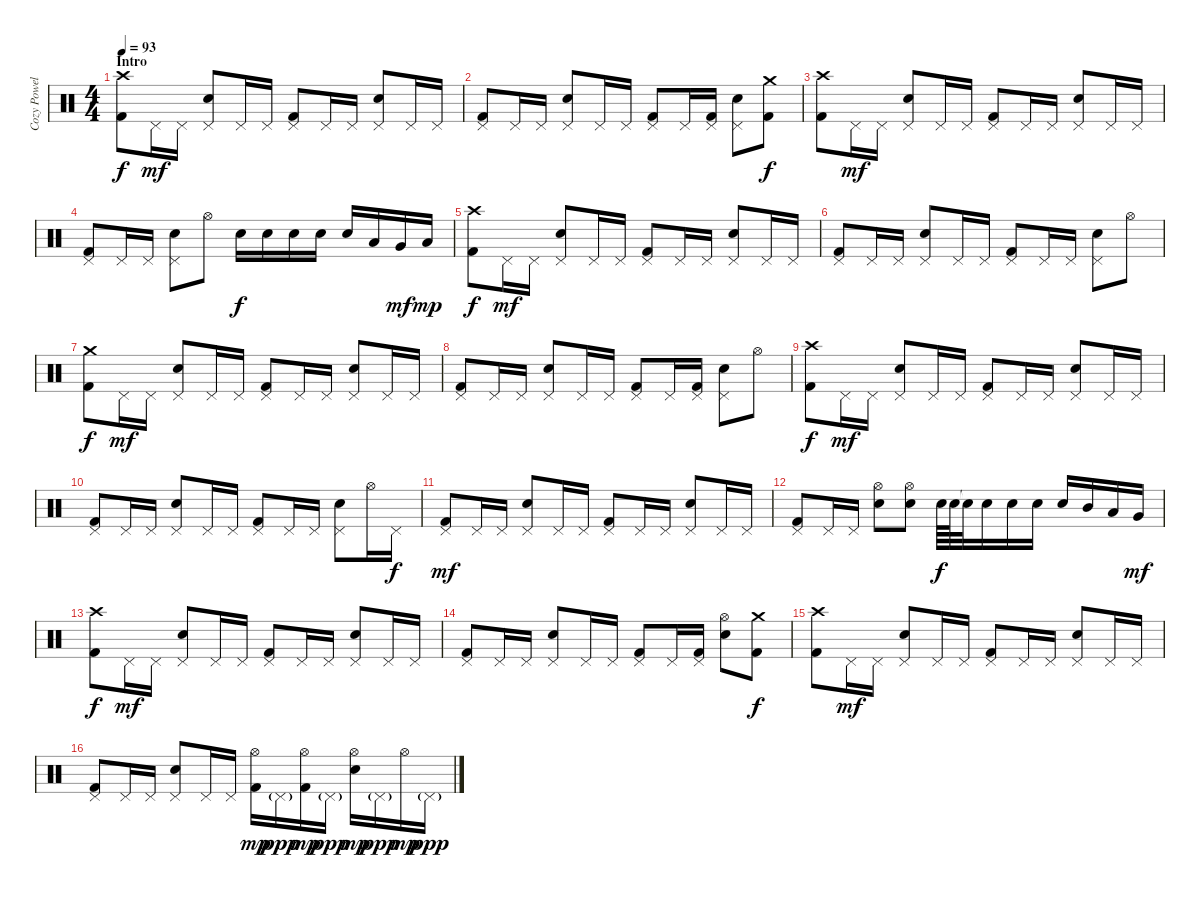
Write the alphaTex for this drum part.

\track ("Cozy Powell" "Cozy Powel") {instrument percussion}
\staff {score}
\articulation defaults
\ts (4 4)
\section ("" "Intro")
\tempo 93
\clef neutral
\ks c
("Kick (hit) 2" "Crash high (hit)").8{dy f} "Pedal Hi-Hat (hit)".16{dy mf} "Pedal Hi-Hat (hit)".16 ("Pedal Hi-Hat (hit)" "Snare (hit) 2").8 "Pedal Hi-Hat (hit)".16 "Pedal Hi-Hat (hit)".16 ("Kick (hit) 2" "Pedal Hi-Hat (hit)").8 "Pedal Hi-Hat (hit)".16 "Pedal Hi-Hat (hit)".16 ("Pedal Hi-Hat (hit)" "Snare (hit) 2").8 "Pedal Hi-Hat (hit)".16 "Pedal Hi-Hat (hit)".16 |
("Kick (hit) 2" "Pedal Hi-Hat (hit)").8 "Pedal Hi-Hat (hit)".16 "Pedal Hi-Hat (hit)".16 ("Pedal Hi-Hat (hit)" "Snare (hit) 2").8 "Pedal Hi-Hat (hit)".16 "Pedal Hi-Hat (hit)".16 ("Kick (hit) 2" "Pedal Hi-Hat (hit)").8 "Pedal Hi-Hat (hit)".16 ("Kick (hit) 2" "Pedal Hi-Hat (hit)").16 ("Pedal Hi-Hat (hit)" "Snare (hit) 2").8 ("Kick (hit) 2" "Crash medium (hit)").8{dy f} |
("Kick (hit) 2" "Crash high (hit)").8 "Pedal Hi-Hat (hit)".16{dy mf} "Pedal Hi-Hat (hit)".16 ("Pedal Hi-Hat (hit)" "Snare (hit) 2").8 "Pedal Hi-Hat (hit)".16 "Pedal Hi-Hat (hit)".16 ("Kick (hit) 2" "Pedal Hi-Hat (hit)").8 "Pedal Hi-Hat (hit)".16 "Pedal Hi-Hat (hit)".16 ("Pedal Hi-Hat (hit)" "Snare (hit) 2").8 "Pedal Hi-Hat (hit)".16 "Pedal Hi-Hat (hit)".16 |
("Kick (hit) 2" "Pedal Hi-Hat (hit)").8 "Pedal Hi-Hat (hit)".16 "Pedal Hi-Hat (hit)".16 ("Pedal Hi-Hat (hit)" "Snare (hit) 2").8 "Hi-Hat (open)".8 "Snare (hit) 2".16{dy f} "Snare (hit) 2".16 "Snare (hit) 2".16 "Snare (hit) 2".16 "Snare (hit) 2".16 "Low Tom (hit)".16 "Very Low Tom (hit)".16{dy mf} "Low Floor Tom (hit)".16{dy mp} |
("Kick (hit) 2" "Crash high (hit)").8{dy f} "Pedal Hi-Hat (hit)".16{dy mf} "Pedal Hi-Hat (hit)".16 ("Pedal Hi-Hat (hit)" "Snare (hit) 2").8 "Pedal Hi-Hat (hit)".16 "Pedal Hi-Hat (hit)".16 ("Kick (hit) 2" "Pedal Hi-Hat (hit)").8 "Pedal Hi-Hat (hit)".16 "Pedal Hi-Hat (hit)".16 ("Pedal Hi-Hat (hit)" "Snare (hit) 2").8 "Pedal Hi-Hat (hit)".16 "Pedal Hi-Hat (hit)".16 |
("Kick (hit) 2" "Pedal Hi-Hat (hit)").8 "Pedal Hi-Hat (hit)".16 "Pedal Hi-Hat (hit)".16 ("Pedal Hi-Hat (hit)" "Snare (hit) 2").8 "Pedal Hi-Hat (hit)".16 "Pedal Hi-Hat (hit)".16 ("Kick (hit) 2" "Pedal Hi-Hat (hit)").8 "Pedal Hi-Hat (hit)".16 "Pedal Hi-Hat (hit)".16 ("Pedal Hi-Hat (hit)" "Snare (hit) 2").8 "Hi-Hat (open)".8 |
("Kick (hit) 2" "Crash medium (hit)").8{dy f} "Pedal Hi-Hat (hit)".16{dy mf} "Pedal Hi-Hat (hit)".16 ("Pedal Hi-Hat (hit)" "Snare (hit) 2").8 "Pedal Hi-Hat (hit)".16 "Pedal Hi-Hat (hit)".16 ("Kick (hit) 2" "Pedal Hi-Hat (hit)").8 "Pedal Hi-Hat (hit)".16 "Pedal Hi-Hat (hit)".16 ("Pedal Hi-Hat (hit)" "Snare (hit) 2").8 "Pedal Hi-Hat (hit)".16 "Pedal Hi-Hat (hit)".16 |
("Kick (hit) 2" "Pedal Hi-Hat (hit)").8 "Pedal Hi-Hat (hit)".16 "Pedal Hi-Hat (hit)".16 ("Pedal Hi-Hat (hit)" "Snare (hit) 2").8 "Pedal Hi-Hat (hit)".16 "Pedal Hi-Hat (hit)".16 ("Kick (hit) 2" "Pedal Hi-Hat (hit)").8 "Pedal Hi-Hat (hit)".16 ("Kick (hit) 2" "Pedal Hi-Hat (hit)").16 ("Pedal Hi-Hat (hit)" "Snare (hit) 2").8 "Hi-Hat (open)".8 |
("Kick (hit) 2" "Crash high (hit)").8{dy f} "Pedal Hi-Hat (hit)".16{dy mf} "Pedal Hi-Hat (hit)".16 ("Pedal Hi-Hat (hit)" "Snare (hit) 2").8 "Pedal Hi-Hat (hit)".16 "Pedal Hi-Hat (hit)".16 ("Kick (hit) 2" "Pedal Hi-Hat (hit)").8 "Pedal Hi-Hat (hit)".16 "Pedal Hi-Hat (hit)".16 ("Pedal Hi-Hat (hit)" "Snare (hit) 2").8 "Pedal Hi-Hat (hit)".16 "Pedal Hi-Hat (hit)".16 |
("Kick (hit) 2" "Pedal Hi-Hat (hit)").8 "Pedal Hi-Hat (hit)".16 "Pedal Hi-Hat (hit)".16 ("Pedal Hi-Hat (hit)" "Snare (hit) 2").8 "Pedal Hi-Hat (hit)".16 "Pedal Hi-Hat (hit)".16 ("Kick (hit) 2" "Pedal Hi-Hat (hit)").8 "Pedal Hi-Hat (hit)".16 "Pedal Hi-Hat (hit)".16 ("Pedal Hi-Hat (hit)" "Snare (hit) 2").8 "Hi-Hat (open)".16 "Pedal Hi-Hat (hit)".16{dy f} |
("Kick (hit) 2" "Pedal Hi-Hat (hit)").8{dy mf} "Pedal Hi-Hat (hit)".16 "Pedal Hi-Hat (hit)".16 ("Pedal Hi-Hat (hit)" "Snare (hit) 2").8 "Pedal Hi-Hat (hit)".16 "Pedal Hi-Hat (hit)".16 ("Kick (hit) 2" "Pedal Hi-Hat (hit)").8 "Pedal Hi-Hat (hit)".16 "Pedal Hi-Hat (hit)".16 ("Pedal Hi-Hat (hit)" "Snare (hit) 2").8 "Pedal Hi-Hat (hit)".16 "Pedal Hi-Hat (hit)".16 |
("Kick (hit) 2" "Pedal Hi-Hat (hit)").8 "Pedal Hi-Hat (hit)".16 "Pedal Hi-Hat (hit)".16 ("Hi-Hat (open)" "Snare (hit) 2").8 ("Hi-Hat (open)" "Snare (hit) 2").8 "Snare (hit) 2".64{dy f} "Snare (hit) 2".64 "Snare (hit)"{t}.32 "Snare (hit) 2".16 "Snare (hit) 2".16 "Snare (hit) 2".16 "Snare (hit) 2".16 "Mid Tom (hit)".16 "Low Tom (hit)".16 "Very Low Tom (hit)".16{dy mf} |
("Kick (hit) 2" "Crash high (hit)").8{dy f} "Pedal Hi-Hat (hit)".16{dy mf} "Pedal Hi-Hat (hit)".16 ("Pedal Hi-Hat (hit)" "Snare (hit) 2").8 "Pedal Hi-Hat (hit)".16 "Pedal Hi-Hat (hit)".16 ("Kick (hit) 2" "Pedal Hi-Hat (hit)").8 "Pedal Hi-Hat (hit)".16 "Pedal Hi-Hat (hit)".16 ("Pedal Hi-Hat (hit)" "Snare (hit) 2").8 "Pedal Hi-Hat (hit)".16 "Pedal Hi-Hat (hit)".16 |
("Kick (hit) 2" "Pedal Hi-Hat (hit)").8 "Pedal Hi-Hat (hit)".16 "Pedal Hi-Hat (hit)".16 ("Pedal Hi-Hat (hit)" "Snare (hit) 2").8 "Pedal Hi-Hat (hit)".16 "Pedal Hi-Hat (hit)".16 ("Kick (hit) 2" "Pedal Hi-Hat (hit)").8 "Pedal Hi-Hat (hit)".16 ("Kick (hit) 2" "Pedal Hi-Hat (hit)").16 ("Hi-Hat (open)" "Snare (hit) 2").8 ("Kick (hit) 2" "Crash medium (hit)").8{dy f} |
("Kick (hit) 2" "Crash high (hit)").8 "Pedal Hi-Hat (hit)".16{dy mf} "Pedal Hi-Hat (hit)".16 ("Pedal Hi-Hat (hit)" "Snare (hit) 2").8 "Pedal Hi-Hat (hit)".16 "Pedal Hi-Hat (hit)".16 ("Kick (hit) 2" "Pedal Hi-Hat (hit)").8 "Pedal Hi-Hat (hit)".16 "Pedal Hi-Hat (hit)".16 ("Pedal Hi-Hat (hit)" "Snare (hit) 2").8 "Pedal Hi-Hat (hit)".16 "Pedal Hi-Hat (hit)".16 |
("Kick (hit) 2" "Pedal Hi-Hat (hit)").8 "Pedal Hi-Hat (hit)".16 "Pedal Hi-Hat (hit)".16 ("Pedal Hi-Hat (hit)" "Snare (hit) 2").8 "Pedal Hi-Hat (hit)".16 "Pedal Hi-Hat (hit)".16 ("Kick (hit) 2" "Hi-Hat (open)").16{dy mp} "Pedal Hi-Hat (hit)"{g}.16{dy ppp} ("Kick (hit) 2" "Hi-Hat (open)").16{dy mp} "Pedal Hi-Hat (hit)"{g}.16{dy ppp} ("Hi-Hat (open)" "Snare (hit) 2").16{dy mp} "Pedal Hi-Hat (hit)"{g}.16{dy ppp} "Hi-Hat (open)".16{dy mp} "Pedal Hi-Hat (hit)"{g}.16{dy ppp}
